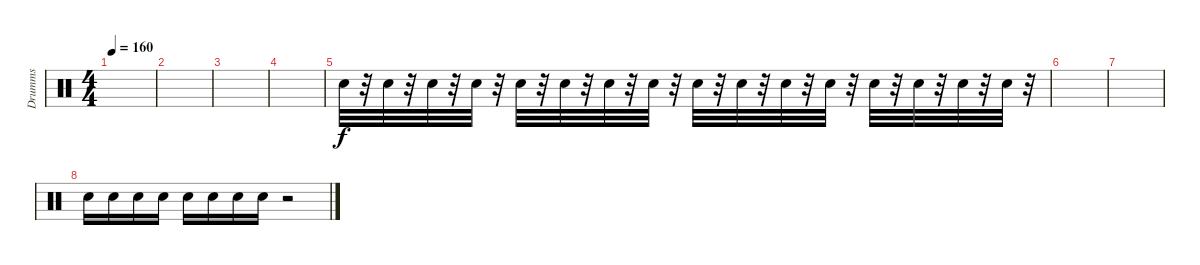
\track ("Drumms" "Drumms") {instrument percussion}
\staff {score}
\articulation defaults
\ts (4 4)
\tempo 160
\clef neutral
\ks c
|
|
|
|
"Snare (hit) 2".32 r.32 "Snare (hit) 2".32 r.32 "Snare (hit) 2".32 r.32 "Snare (hit) 2".32 r.32 "Snare (hit) 2".32 r.32 "Snare (hit) 2".32 r.32 "Snare (hit) 2".32 r.32 "Snare (hit) 2".32 r.32 "Snare (hit) 2".32 r.32 "Snare (hit) 2".32 r.32 "Snare (hit) 2".32 r.32 "Snare (hit) 2".32 r.32 "Snare (hit) 2".32 r.32 "Snare (hit) 2".32 r.32 "Snare (hit) 2".32 r.32 "Snare (hit) 2".32 r.32 |
|
|
"Snare (hit) 2".16 "Snare (hit) 2".16 "Snare (hit) 2".16 "Snare (hit) 2".16 "Snare (hit) 2".16 "Snare (hit) 2".16 "Snare (hit) 2".16 "Snare (hit) 2".16 r.2
